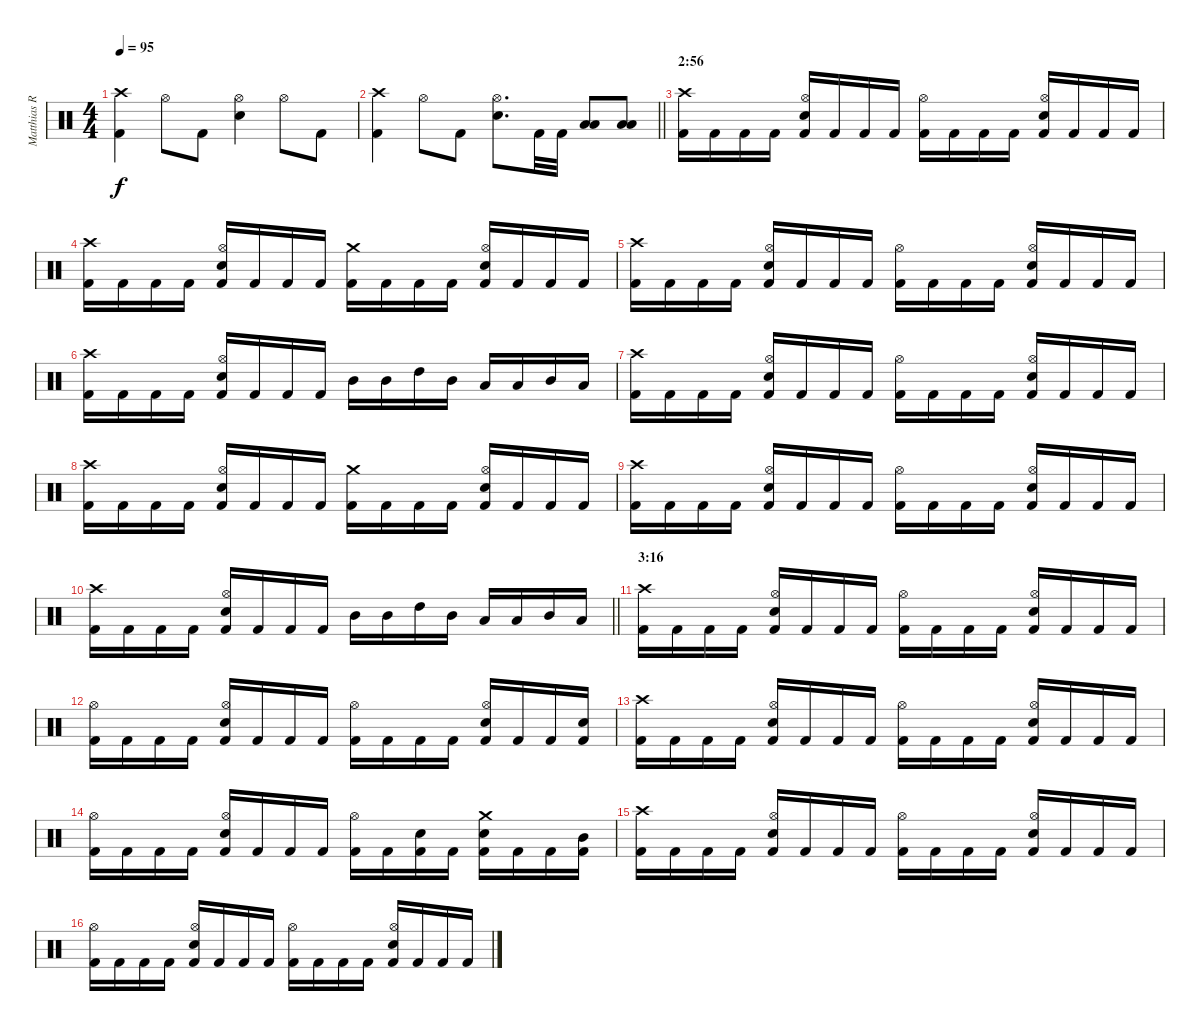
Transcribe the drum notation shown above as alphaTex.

\track ("Matthias R." "Matthias R") {instrument percussion}
\staff {score}
\articulation defaults
\ts (4 4)
\tempo 95
\clef neutral
\ks c
("Kick (hit) 2" "Crash high (hit)").4{dy f} "Hi-Hat (open)".8 "Kick (hit) 2".8 ("Snare (hit) 2" "Hi-Hat (open)").4 "Hi-Hat (open)".8 "Kick (hit) 2".8 |
\barLineRight lightlight
("Kick (hit) 2" "Crash high (hit)").4 "Hi-Hat (open)".8 "Kick (hit) 2".8 ("Snare (hit) 2" "Hi-Hat (open)").8{d} "Kick (hit) 2".32 "Kick (hit) 2".32 ("Low Tom (hit)" "Low Tom (hit)").8 ("Low Tom (hit)" "Low Tom (hit)").8 |
\section ("" "2:56")
("Kick (hit) 2" "Crash high (hit)").16 "Kick (hit) 2".16 "Kick (hit) 2".16 "Kick (hit) 2".16 ("Kick (hit) 2" "Snare (hit) 2" "Hi-Hat (open)").16 "Kick (hit) 2".16 "Kick (hit) 2".16 "Kick (hit) 2".16 ("Kick (hit) 2" "Hi-Hat (open)").16 "Kick (hit) 2".16 "Kick (hit) 2".16 "Kick (hit) 2".16 ("Kick (hit) 2" "Snare (hit) 2" "Hi-Hat (open)").16 "Kick (hit) 2".16 "Kick (hit) 2".16 "Kick (hit) 2".16 |
("Kick (hit) 2" "Crash high (hit)").16 "Kick (hit) 2".16 "Kick (hit) 2".16 "Kick (hit) 2".16 ("Kick (hit) 2" "Snare (hit) 2" "Hi-Hat (open)").16 "Kick (hit) 2".16 "Kick (hit) 2".16 "Kick (hit) 2".16 ("Kick (hit) 2" "Crash medium (hit)").16 "Kick (hit) 2".16 "Kick (hit) 2".16 "Kick (hit) 2".16 ("Kick (hit) 2" "Snare (hit) 2" "Hi-Hat (open)").16 "Kick (hit) 2".16 "Kick (hit) 2".16 "Kick (hit) 2".16 |
("Kick (hit) 2" "Crash high (hit)").16 "Kick (hit) 2".16 "Kick (hit) 2".16 "Kick (hit) 2".16 ("Kick (hit) 2" "Snare (hit) 2" "Hi-Hat (open)").16 "Kick (hit) 2".16 "Kick (hit) 2".16 "Kick (hit) 2".16 ("Kick (hit) 2" "Hi-Hat (open)").16 "Kick (hit) 2".16 "Kick (hit) 2".16 "Kick (hit) 2".16 ("Kick (hit) 2" "Snare (hit) 2" "Hi-Hat (open)").16 "Kick (hit) 2".16 "Kick (hit) 2".16 "Kick (hit) 2".16 |
("Kick (hit) 2" "Crash high (hit)").16 "Kick (hit) 2".16 "Kick (hit) 2".16 "Kick (hit) 2".16 ("Kick (hit) 2" "Snare (hit) 2" "Hi-Hat (open)").16 "Kick (hit) 2".16 "Kick (hit) 2".16 "Kick (hit) 2".16 "Mid Tom (hit)".16 "Mid Tom (hit)".16 "High Tom (hit)".16 "Mid Tom (hit)".16 "Low Tom (hit)".16 "Low Tom (hit)".16 "Mid Tom (hit)".16 "Low Tom (hit)".16 |
("Kick (hit) 2" "Crash high (hit)").16 "Kick (hit) 2".16 "Kick (hit) 2".16 "Kick (hit) 2".16 ("Kick (hit) 2" "Snare (hit) 2" "Hi-Hat (open)").16 "Kick (hit) 2".16 "Kick (hit) 2".16 "Kick (hit) 2".16 ("Kick (hit) 2" "Hi-Hat (open)").16 "Kick (hit) 2".16 "Kick (hit) 2".16 "Kick (hit) 2".16 ("Kick (hit) 2" "Snare (hit) 2" "Hi-Hat (open)").16 "Kick (hit) 2".16 "Kick (hit) 2".16 "Kick (hit) 2".16 |
("Kick (hit) 2" "Crash high (hit)").16 "Kick (hit) 2".16 "Kick (hit) 2".16 "Kick (hit) 2".16 ("Kick (hit) 2" "Snare (hit) 2" "Hi-Hat (open)").16 "Kick (hit) 2".16 "Kick (hit) 2".16 "Kick (hit) 2".16 ("Kick (hit) 2" "Crash medium (hit)").16 "Kick (hit) 2".16 "Kick (hit) 2".16 "Kick (hit) 2".16 ("Kick (hit) 2" "Snare (hit) 2" "Hi-Hat (open)").16 "Kick (hit) 2".16 "Kick (hit) 2".16 "Kick (hit) 2".16 |
("Kick (hit) 2" "Crash high (hit)").16 "Kick (hit) 2".16 "Kick (hit) 2".16 "Kick (hit) 2".16 ("Kick (hit) 2" "Snare (hit) 2" "Hi-Hat (open)").16 "Kick (hit) 2".16 "Kick (hit) 2".16 "Kick (hit) 2".16 ("Kick (hit) 2" "Hi-Hat (open)").16 "Kick (hit) 2".16 "Kick (hit) 2".16 "Kick (hit) 2".16 ("Kick (hit) 2" "Snare (hit) 2" "Hi-Hat (open)").16 "Kick (hit) 2".16 "Kick (hit) 2".16 "Kick (hit) 2".16 |
\barLineRight lightlight
("Kick (hit) 2" "Crash high (hit)").16 "Kick (hit) 2".16 "Kick (hit) 2".16 "Kick (hit) 2".16 ("Kick (hit) 2" "Snare (hit) 2" "Hi-Hat (open)").16 "Kick (hit) 2".16 "Kick (hit) 2".16 "Kick (hit) 2".16 "Mid Tom (hit)".16 "Mid Tom (hit)".16 "High Tom (hit)".16 "Mid Tom (hit)".16 "Low Tom (hit)".16 "Low Tom (hit)".16 "Mid Tom (hit)".16 "Low Tom (hit)".16 |
\section ("" "3:16")
("Kick (hit) 2" "Crash high (hit)").16 "Kick (hit) 2".16 "Kick (hit) 2".16 "Kick (hit) 2".16 ("Kick (hit) 2" "Snare (hit) 2" "Hi-Hat (open)").16 "Kick (hit) 2".16 "Kick (hit) 2".16 "Kick (hit) 2".16 ("Kick (hit) 2" "Hi-Hat (open)").16 "Kick (hit) 2".16 "Kick (hit) 2".16 "Kick (hit) 2".16 ("Kick (hit) 2" "Snare (hit) 2" "Hi-Hat (open)").16 "Kick (hit) 2".16 "Kick (hit) 2".16 "Kick (hit) 2".16 |
("Kick (hit) 2" "Hi-Hat (open)").16 "Kick (hit) 2".16 "Kick (hit) 2".16 "Kick (hit) 2".16 ("Kick (hit) 2" "Snare (hit) 2" "Hi-Hat (open)").16 "Kick (hit) 2".16 "Kick (hit) 2".16 "Kick (hit) 2".16 ("Kick (hit) 2" "Hi-Hat (open)").16 "Kick (hit) 2".16 "Kick (hit) 2".16 "Kick (hit) 2".16 ("Kick (hit) 2" "Snare (hit) 2" "Hi-Hat (open)").16 "Kick (hit) 2".16 "Kick (hit) 2".16 ("Kick (hit) 2" "Snare (hit) 2").16 |
("Kick (hit) 2" "Crash high (hit)").16 "Kick (hit) 2".16 "Kick (hit) 2".16 "Kick (hit) 2".16 ("Kick (hit) 2" "Snare (hit) 2" "Hi-Hat (open)").16 "Kick (hit) 2".16 "Kick (hit) 2".16 "Kick (hit) 2".16 ("Kick (hit) 2" "Hi-Hat (open)").16 "Kick (hit) 2".16 "Kick (hit) 2".16 "Kick (hit) 2".16 ("Kick (hit) 2" "Snare (hit) 2" "Hi-Hat (open)").16 "Kick (hit) 2".16 "Kick (hit) 2".16 "Kick (hit) 2".16 |
("Kick (hit) 2" "Hi-Hat (open)").16 "Kick (hit) 2".16 "Kick (hit) 2".16 "Kick (hit) 2".16 ("Kick (hit) 2" "Snare (hit) 2" "Hi-Hat (open)").16 "Kick (hit) 2".16 "Kick (hit) 2".16 "Kick (hit) 2".16 ("Kick (hit) 2" "Hi-Hat (open)").16 "Kick (hit) 2".16 ("Kick (hit) 2" "Snare (hit) 2").16 "Kick (hit) 2".16 ("Kick (hit) 2" "Snare (hit) 2" "Crash medium (hit)").16 "Kick (hit) 2".16 "Kick (hit) 2".16 ("Kick (hit) 2" "Mid Tom (hit)").16 |
("Kick (hit) 2" "Crash high (hit)").16 "Kick (hit) 2".16 "Kick (hit) 2".16 "Kick (hit) 2".16 ("Kick (hit) 2" "Snare (hit) 2" "Hi-Hat (open)").16 "Kick (hit) 2".16 "Kick (hit) 2".16 "Kick (hit) 2".16 ("Kick (hit) 2" "Hi-Hat (open)").16 "Kick (hit) 2".16 "Kick (hit) 2".16 "Kick (hit) 2".16 ("Kick (hit) 2" "Snare (hit) 2" "Hi-Hat (open)").16 "Kick (hit) 2".16 "Kick (hit) 2".16 "Kick (hit) 2".16 |
("Kick (hit) 2" "Hi-Hat (open)").16 "Kick (hit) 2".16 "Kick (hit) 2".16 "Kick (hit) 2".16 ("Kick (hit) 2" "Snare (hit) 2" "Hi-Hat (open)").16 "Kick (hit) 2".16 "Kick (hit) 2".16 "Kick (hit) 2".16 ("Kick (hit) 2" "Hi-Hat (open)").16 "Kick (hit) 2".16 "Kick (hit) 2".16 "Kick (hit) 2".16 ("Kick (hit) 2" "Snare (hit) 2" "Hi-Hat (open)").16 "Kick (hit) 2".16 "Kick (hit) 2".16 "Kick (hit) 2".16
